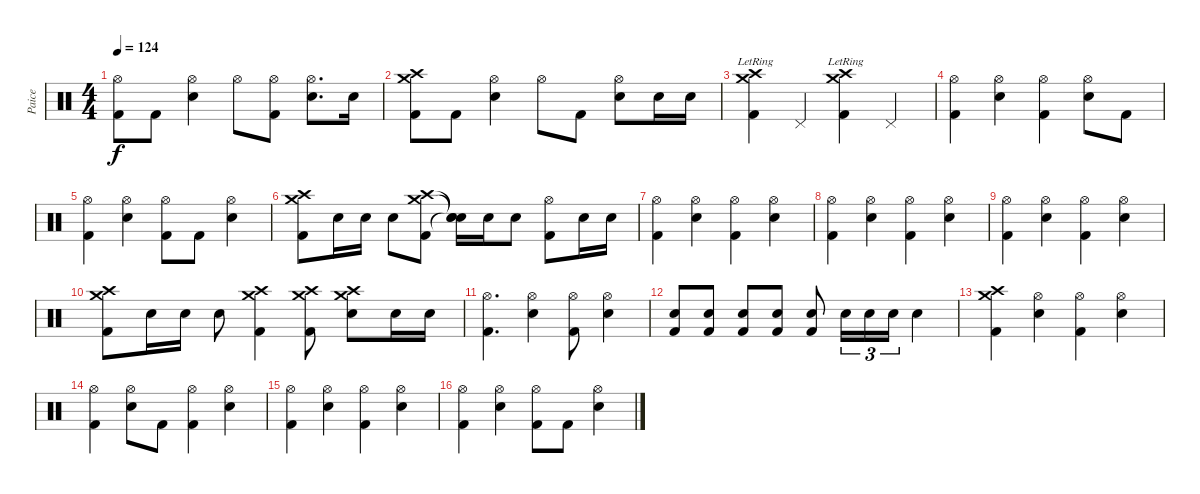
\track ("Paice" "Paice") {instrument percussion}
\staff {score}
\articulation defaults
\ts (4 4)
\tempo 124
\clef neutral
\ks c
("Hi-Hat (open)" "Kick (hit) 2").8{dy f} "Kick (hit) 2".8 ("Hi-Hat (open)" "Electric Snare (hit)").4 "Hi-Hat (open)".8 ("Hi-Hat (open)" "Kick (hit) 2").8 ("Hi-Hat (open)" "Electric Snare (hit)").8{d} "Electric Snare (hit)".16 |
("Crash high (hit)" "Crash medium (hit)" "Kick (hit) 2").8 "Kick (hit) 2".8 ("Hi-Hat (open)" "Electric Snare (hit)").4 "Hi-Hat (open)".8 "Kick (hit) 2".8 ("Hi-Hat (open)" "Electric Snare (hit)").8 "Electric Snare (hit)".16 "Electric Snare (hit)".16 |
("Crash high (hit)"{lr} "Crash medium (hit)"{lr} "Kick (hit) 2").4 "Pedal Hi-Hat (hit)".4 ("Crash high (hit)"{lr} "Crash medium (hit)"{lr} "Kick (hit) 2").4 "Pedal Hi-Hat (hit)".4 |
("Hi-Hat (open)" "Kick (hit) 2").4 ("Hi-Hat (open)" "Electric Snare (hit)").4 ("Hi-Hat (open)" "Kick (hit) 2").4 ("Hi-Hat (open)" "Electric Snare (hit)").8 "Kick (hit) 2".8 |
("Hi-Hat (open)" "Kick (hit) 2").4 ("Hi-Hat (open)" "Electric Snare (hit)").4 ("Hi-Hat (open)" "Kick (hit) 2").8 "Kick (hit) 2".8 ("Hi-Hat (open)" "Electric Snare (hit)").4 |
("Crash high (hit)" "Crash medium (hit)" "Kick (hit) 2").8 "Electric Snare (hit)".16 "Electric Snare (hit)".16 "Electric Snare (hit)".8 ("Crash high (hit)" "Crash medium (hit)" "Kick (hit) 2").8 ("Snare (hit)"{t} "Snare (hit)"{t} "Snare (hit)"{t}).16 "Electric Snare (hit)".16 "Electric Snare (hit)".8 ("Hi-Hat (open)" "Kick (hit) 2").8 "Electric Snare (hit)".16 "Electric Snare (hit)".16 |
("Hi-Hat (open)" "Kick (hit) 2").4 ("Hi-Hat (open)" "Electric Snare (hit)").4 ("Hi-Hat (open)" "Kick (hit) 2").4 ("Hi-Hat (open)" "Electric Snare (hit)").4 |
("Hi-Hat (open)" "Kick (hit) 2").4 ("Hi-Hat (open)" "Electric Snare (hit)").4 ("Hi-Hat (open)" "Kick (hit) 2").4 ("Hi-Hat (open)" "Electric Snare (hit)").4 |
("Hi-Hat (open)" "Kick (hit) 2").4 ("Hi-Hat (open)" "Electric Snare (hit)").4 ("Hi-Hat (open)" "Kick (hit) 2").4 ("Hi-Hat (open)" "Electric Snare (hit)").4 |
("Crash high (hit)" "Crash medium (hit)" "Kick (hit) 2").8 "Electric Snare (hit)".16 "Electric Snare (hit)".16 "Electric Snare (hit)".8 ("Crash high (hit)" "Crash medium (hit)" "Kick (hit) 2").4 ("Crash high (hit)" "Crash medium (hit)" "Kick (hit) 2").8 ("Crash high (hit)" "Crash medium (hit)" "Electric Snare (hit)").8 "Electric Snare (hit)".16 "Electric Snare (hit)".16 |
("Hi-Hat (open)" "Kick (hit) 2").4{d} ("Hi-Hat (open)" "Electric Snare (hit)").4 ("Hi-Hat (open)" "Kick (hit) 2").8 ("Hi-Hat (open)" "Electric Snare (hit)").4 |
("Electric Snare (hit)" "Kick (hit) 2").8 ("Electric Snare (hit)" "Kick (hit) 2").8 ("Electric Snare (hit)" "Kick (hit) 2").8 ("Electric Snare (hit)" "Kick (hit) 2").8 ("Electric Snare (hit)" "Kick (hit) 2").8 "Electric Snare (hit)".16{tu (3 2)} "Electric Snare (hit)".16{tu (3 2)} "Electric Snare (hit)".16{tu (3 2)} "Electric Snare (hit)".4 |
("Crash high (hit)" "Crash medium (hit)" "Kick (hit) 2").4 ("Hi-Hat (open)" "Electric Snare (hit)").4 ("Hi-Hat (open)" "Kick (hit) 2").4 ("Hi-Hat (open)" "Electric Snare (hit)").4 |
("Hi-Hat (open)" "Kick (hit) 2").4 ("Hi-Hat (open)" "Electric Snare (hit)").8 "Kick (hit) 2".8 ("Hi-Hat (open)" "Kick (hit) 2").4 ("Hi-Hat (open)" "Electric Snare (hit)").4 |
("Hi-Hat (open)" "Kick (hit) 2").4 ("Hi-Hat (open)" "Electric Snare (hit)").4 ("Hi-Hat (open)" "Kick (hit) 2").4 ("Hi-Hat (open)" "Electric Snare (hit)").4 |
("Hi-Hat (open)" "Kick (hit) 2").4 ("Hi-Hat (open)" "Electric Snare (hit)").4 ("Hi-Hat (open)" "Kick (hit) 2").8 "Kick (hit) 2".8 ("Hi-Hat (open)" "Electric Snare (hit)").4
